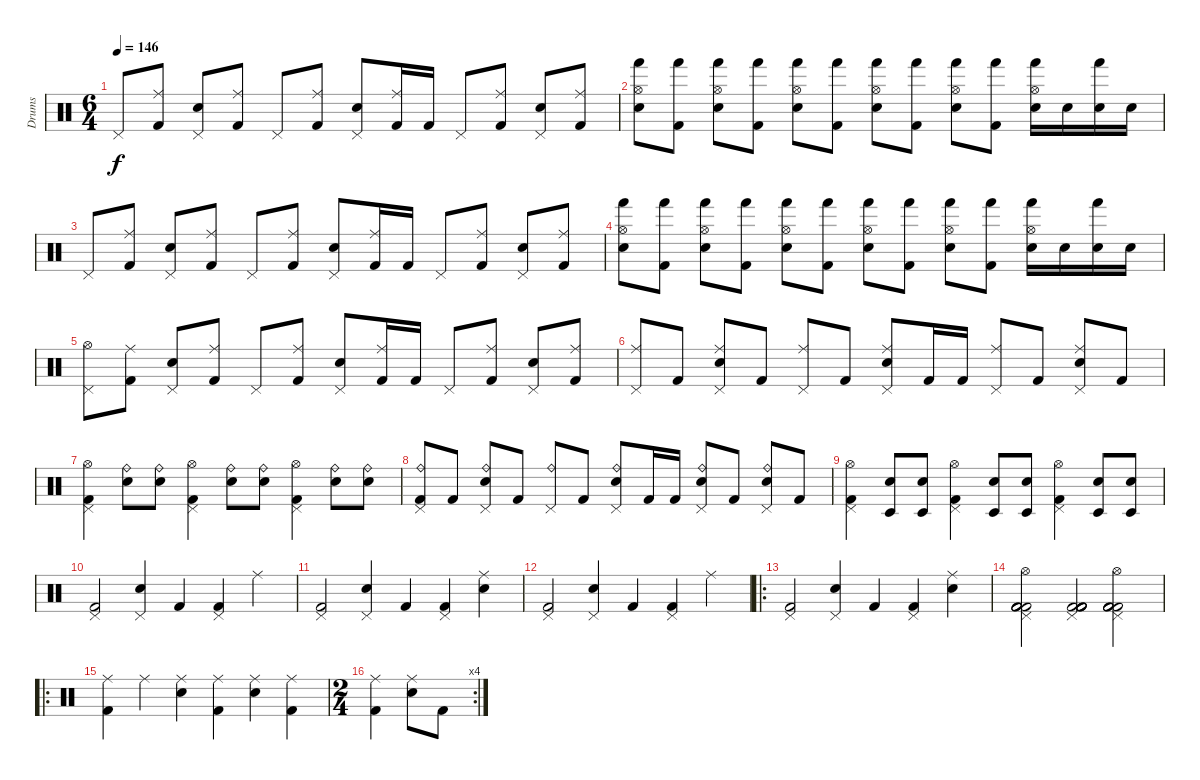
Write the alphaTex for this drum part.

\track ("Drums" "Drums") {instrument percussion}
\staff {score}
\articulation defaults
\ts (6 4)
\tempo 146
\clef neutral
\ks c "Pedal Hi-Hat (hit)".8{dy f}
("Ride (middle)" "Kick (hit) 2").8 ("Pedal Hi-Hat (hit)" "Electric Snare (hit)").8 ("Ride (middle)" "Kick (hit) 2").8 "Pedal Hi-Hat (hit)".8 ("Ride (middle)" "Kick (hit) 2").8 ("Pedal Hi-Hat (hit)" "Electric Snare (hit)").8 ("Ride (middle)" "Kick (hit) 2").16 "Kick (hit) 2".16 "Pedal Hi-Hat (hit)".8 ("Ride (middle)" "Kick (hit) 2").8 ("Pedal Hi-Hat (hit)" "Electric Snare (hit)").8 ("Ride (middle)" "Kick (hit) 2").8 |
("Hi-Hat (open)" "Hand (hit)" "Electric Snare (hit)").8 ("Hand (hit)" "Kick (hit) 2").8 ("Hi-Hat (open)" "Hand (hit)" "Electric Snare (hit)").8 ("Hand (hit)" "Kick (hit) 2").8 ("Hi-Hat (open)" "Hand (hit)" "Electric Snare (hit)").8 ("Hand (hit)" "Kick (hit) 2").8 ("Hi-Hat (open)" "Hand (hit)" "Electric Snare (hit)").8 ("Hand (hit)" "Kick (hit) 2").8 ("Hi-Hat (open)" "Hand (hit)" "Electric Snare (hit)").8 ("Hand (hit)" "Kick (hit) 2").8 ("Hi-Hat (open)" "Hand (hit)" "Electric Snare (hit)").16 "Electric Snare (hit)".16 ("Hand (hit)" "Electric Snare (hit)").16 "Electric Snare (hit)".16 |
"Pedal Hi-Hat (hit)".8 ("Ride (middle)" "Kick (hit) 2").8 ("Pedal Hi-Hat (hit)" "Electric Snare (hit)").8 ("Ride (middle)" "Kick (hit) 2").8 "Pedal Hi-Hat (hit)".8 ("Ride (middle)" "Kick (hit) 2").8 ("Pedal Hi-Hat (hit)" "Electric Snare (hit)").8 ("Ride (middle)" "Kick (hit) 2").16 "Kick (hit) 2".16 "Pedal Hi-Hat (hit)".8 ("Ride (middle)" "Kick (hit) 2").8 ("Pedal Hi-Hat (hit)" "Electric Snare (hit)").8 ("Ride (middle)" "Kick (hit) 2").8 |
("Hi-Hat (open)" "Hand (hit)" "Electric Snare (hit)").8 ("Hand (hit)" "Kick (hit) 2").8 ("Hi-Hat (open)" "Hand (hit)" "Electric Snare (hit)").8 ("Hand (hit)" "Kick (hit) 2").8 ("Hi-Hat (open)" "Hand (hit)" "Electric Snare (hit)").8 ("Hand (hit)" "Kick (hit) 2").8 ("Hi-Hat (open)" "Hand (hit)" "Electric Snare (hit)").8 ("Hand (hit)" "Kick (hit) 2").8 ("Hi-Hat (open)" "Hand (hit)" "Electric Snare (hit)").8 ("Hand (hit)" "Kick (hit) 2").8 ("Hi-Hat (open)" "Hand (hit)" "Electric Snare (hit)").16 "Electric Snare (hit)".16 ("Hand (hit)" "Electric Snare (hit)").16 "Electric Snare (hit)".16 |
("Pedal Hi-Hat (hit)" "Hi-Hat (open)").8 ("Ride (middle)" "Kick (hit) 2").8 ("Pedal Hi-Hat (hit)" "Electric Snare (hit)").8 ("Ride (middle)" "Kick (hit) 2").8 "Pedal Hi-Hat (hit)".8 ("Ride (middle)" "Kick (hit) 2").8 ("Pedal Hi-Hat (hit)" "Electric Snare (hit)").8 ("Ride (middle)" "Kick (hit) 2").16 "Kick (hit) 2".16 "Pedal Hi-Hat (hit)".8 ("Ride (middle)" "Kick (hit) 2").8 ("Pedal Hi-Hat (hit)" "Electric Snare (hit)").8 ("Ride (middle)" "Kick (hit) 2").8 |
("Pedal Hi-Hat (hit)" "Ride (middle)").8 "Kick (hit) 2".8 ("Pedal Hi-Hat (hit)" "Electric Snare (hit)" "Ride (middle)").8 "Kick (hit) 2".8 ("Pedal Hi-Hat (hit)" "Ride (middle)").8 "Kick (hit) 2".8 ("Pedal Hi-Hat (hit)" "Electric Snare (hit)" "Ride (middle)").8 "Kick (hit) 2".16 "Kick (hit) 2".16 ("Pedal Hi-Hat (hit)" "Ride (middle)").8 "Kick (hit) 2".8 ("Pedal Hi-Hat (hit)" "Electric Snare (hit)" "Ride (middle)").8 "Kick (hit) 2".8 |
("Pedal Hi-Hat (hit)" "Kick (hit) 2" "Hi-Hat (open)").4 ("Ride (bell)" "Electric Snare (hit)").8 ("Ride (bell)" "Electric Snare (hit)").8 ("Pedal Hi-Hat (hit)" "Kick (hit) 2" "Hi-Hat (open)").4 ("Ride (bell)" "Electric Snare (hit)").8 ("Ride (bell)" "Electric Snare (hit)").8 ("Pedal Hi-Hat (hit)" "Kick (hit) 2" "Hi-Hat (open)").4 ("Ride (bell)" "Electric Snare (hit)").8 ("Ride (bell)" "Electric Snare (hit)").8 |
("Pedal Hi-Hat (hit)" "Ride (bell)" "Kick (hit) 2").8 "Kick (hit) 2".8 ("Pedal Hi-Hat (hit)" "Electric Snare (hit)" "Ride (bell)").8 "Kick (hit) 2".8 ("Pedal Hi-Hat (hit)" "Ride (bell)").8 "Kick (hit) 2".8 ("Pedal Hi-Hat (hit)" "Electric Snare (hit)" "Ride (bell)").8 "Kick (hit) 2".16 "Kick (hit) 2".16 ("Pedal Hi-Hat (hit)" "Electric Snare (hit)" "Ride (bell)").8 "Kick (hit) 2".8 ("Pedal Hi-Hat (hit)" "Electric Snare (hit)" "Ride (bell)").8 "Kick (hit) 2".8 |
("Pedal Hi-Hat (hit)" "Kick (hit) 2" "Hi-Hat (open)").4 ("Timbale low (hit)" "Electric Snare (hit)").8 ("Timbale low (hit)" "Electric Snare (hit)").8 ("Pedal Hi-Hat (hit)" "Kick (hit) 2" "Hi-Hat (open)").4 ("Timbale low (hit)" "Electric Snare (hit)").8 ("Timbale low (hit)" "Electric Snare (hit)").8 ("Pedal Hi-Hat (hit)" "Kick (hit) 2" "Hi-Hat (open)").4 ("Timbale low (hit)" "Electric Snare (hit)").8 ("Timbale low (hit)" "Electric Snare (hit)").8 |
("Pedal Hi-Hat (hit)" "Kick (hit) 2").2 ("Pedal Hi-Hat (hit)" "Electric Snare (hit)").4 "Kick (hit) 2".4 ("Pedal Hi-Hat (hit)" "Kick (hit) 2").4 "Ride (middle)".4 |
("Pedal Hi-Hat (hit)" "Kick (hit) 2").2 ("Pedal Hi-Hat (hit)" "Electric Snare (hit)").4 "Kick (hit) 2".4 ("Pedal Hi-Hat (hit)" "Kick (hit) 2").4 ("Ride (middle)" "Electric Snare (hit)").4 |
("Pedal Hi-Hat (hit)" "Kick (hit) 2").2 ("Pedal Hi-Hat (hit)" "Electric Snare (hit)").4 "Kick (hit) 2".4 ("Pedal Hi-Hat (hit)" "Kick (hit) 2").4 "Ride (middle)".4 |
\ro
("Pedal Hi-Hat (hit)" "Kick (hit) 2").2 ("Pedal Hi-Hat (hit)" "Electric Snare (hit)").4 "Kick (hit) 2".4 ("Pedal Hi-Hat (hit)" "Kick (hit) 2").4 ("Ride (middle)" "Electric Snare (hit)").4 |
("Pedal Hi-Hat (hit)" "Hi-Hat (open)" "Kick (hit) 2" "Kick (hit) 2" "Kick (hit) 2" "Kick (hit) 2").2 ("Pedal Hi-Hat (hit)" "Kick (hit) 2" "Kick (hit) 2" "Kick (hit) 2" "Kick (hit) 2" "Kick (hit) 2").2 ("Pedal Hi-Hat (hit)" "Hi-Hat (open)" "Kick (hit) 2" "Kick (hit) 2" "Kick (hit) 2" "Kick (hit) 2").2 |
\ro
("Ride (middle)" "Kick (hit) 2").4 "Ride (middle)".4 ("Ride (middle)" "Electric Snare (hit)").4 ("Ride (middle)" "Kick (hit) 2").4 ("Ride (middle)" "Electric Snare (hit)").4 ("Ride (middle)" "Kick (hit) 2").4 |
\rc 4
\ts (2 4)
("Ride (middle)" "Kick (hit) 2").4 ("Ride (middle)" "Electric Snare (hit)").8 "Kick (hit) 2".8
